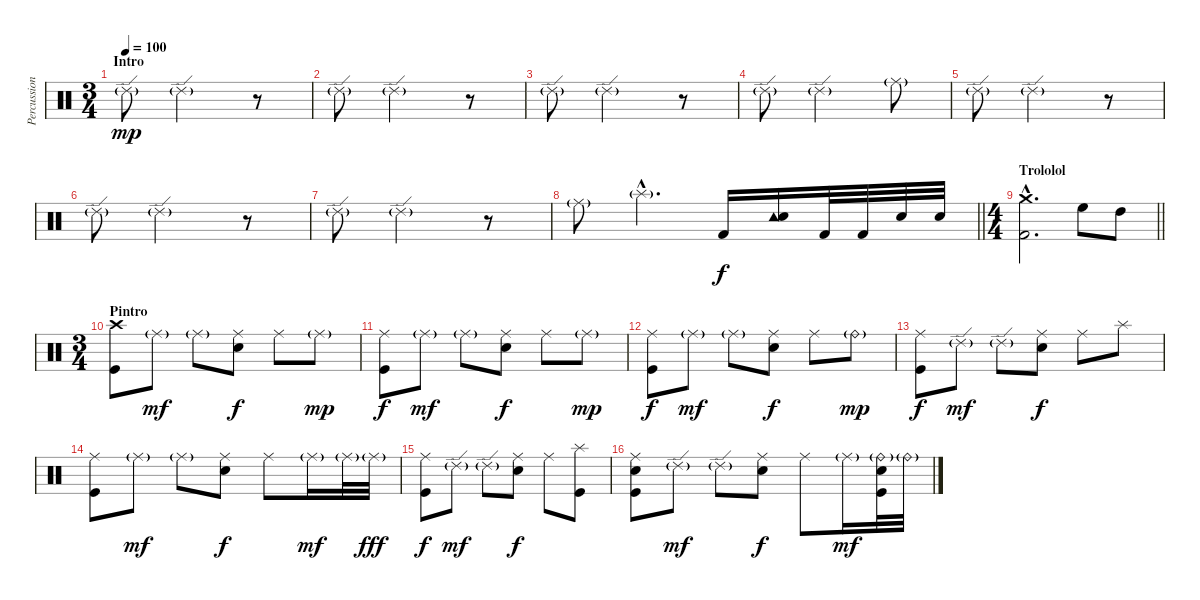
\track ("Percussion" "Percussion") {instrument percussion}
\staff {score}
\articulation defaults
\ts (3 4)
\section ("" "Intro")
\tempo 100
\clef neutral
\ks c "Ride (edge) 2"{g}.8{dy mp} "Ride (edge) 2"{g}.2
r.8 |
"Ride (edge) 2"{g}.8 "Ride (edge) 2"{g}.2 r.8 |
"Ride (edge) 2"{g}.8 "Ride (edge) 2"{g}.2 r.8 |
"Ride (edge) 2"{g}.8 "Ride (edge) 2"{g}.2 "Ride (middle)"{g}.8 |
"Ride (edge) 2"{g}.8 "Ride (edge) 2"{g}.2 r.8 |
"Ride (edge) 2"{g}.8 "Ride (edge) 2"{g}.2 r.8 |
"Ride (edge) 2"{g}.8 "Ride (edge) 2"{g}.2 r.8 |
\barLineRight lightlight "Ride (middle)"{g}.8 "Splash (hit)"{g hac}.4{d} "Kick (hit) 2".16{dy f}
("Tambourine (hit)" "Electric Snare (hit)").16 "Kick (hit) 2".32 "Kick (hit) 2".32 "Electric Snare (hit)".32 "Electric Snare (hit)".32 |
\ts (4 4)
\section ("" "Trololol")
\barLineRight lightlight
("Crash medium (hit)"{hac} "Kick (hit) 2"{hac}).2{d} "High Floor Tom (hit)".8 "High Tom (hit)".8 |
\ts (3 4)
\section ("" "Pintro")
("Crash high (hit)" "Kick (hit)").8 "Ride (middle)"{g}.8{dy mf} "Ride (middle)"{g}.8 ("Ride (middle)" "Electric Snare (hit)").8{dy f} "Ride (middle)".8 "Ride (middle)"{g}.8{dy mp} |
("Ride (middle)" "Kick (hit)").8{dy f} "Ride (middle)"{g}.8{dy mf} "Ride (middle)"{g}.8 ("Ride (middle)" "Electric Snare (hit)").8{dy f} "Ride (middle)".8 "Ride (middle)"{g}.8{dy mp} |
("Ride (middle)" "Kick (hit)").8{dy f} "Ride (middle)"{g}.8{dy mf} "Ride (middle)"{g}.8 ("Ride (middle)" "Electric Snare (hit)").8{dy f} "Ride (middle)".8 "Ride (bell)"{g}.8{dy mp} |
("Ride (middle)" "Kick (hit)").8{dy f} "Ride (edge) 2"{g}.8{dy mf} "Ride (edge) 2"{g}.8 ("Ride (middle)" "Electric Snare (hit)").8{dy f} "Ride (middle)".8 "Splash (hit)".8 |
("Ride (middle)" "Kick (hit)").8 "Ride (middle)"{g}.8{dy mf} "Ride (middle)"{g}.8 ("Ride (middle)" "Electric Snare (hit)").8{dy f} "Ride (middle)".8 "Ride (middle)"{g}.16{dy mf} "Ride (middle)"{g}.32 "Ride (middle)"{g}.32{dy fff} |
("Ride (middle)" "Kick (hit)").8{dy f} "Ride (edge) 2"{g}.8{dy mf} "Ride (edge) 2"{g}.8 ("Ride (middle)" "Electric Snare (hit)").8{dy f} "Ride (middle)".8 ("Splash (hit)" "Kick (hit)").8 |
("Ride (middle)" "Electric Snare (hit)" "Kick (hit)").8 "Ride (edge) 2"{g}.8{dy mf} "Ride (edge) 2"{g}.8 ("Ride (middle)" "Electric Snare (hit)").8{dy f} "Ride (middle)".8 "Ride (middle)"{g}.16{dy mf} ("Ride (bell)"{g} "Electric Snare (hit)" "Kick (hit)").32 "Ride (bell)"{g}.32
